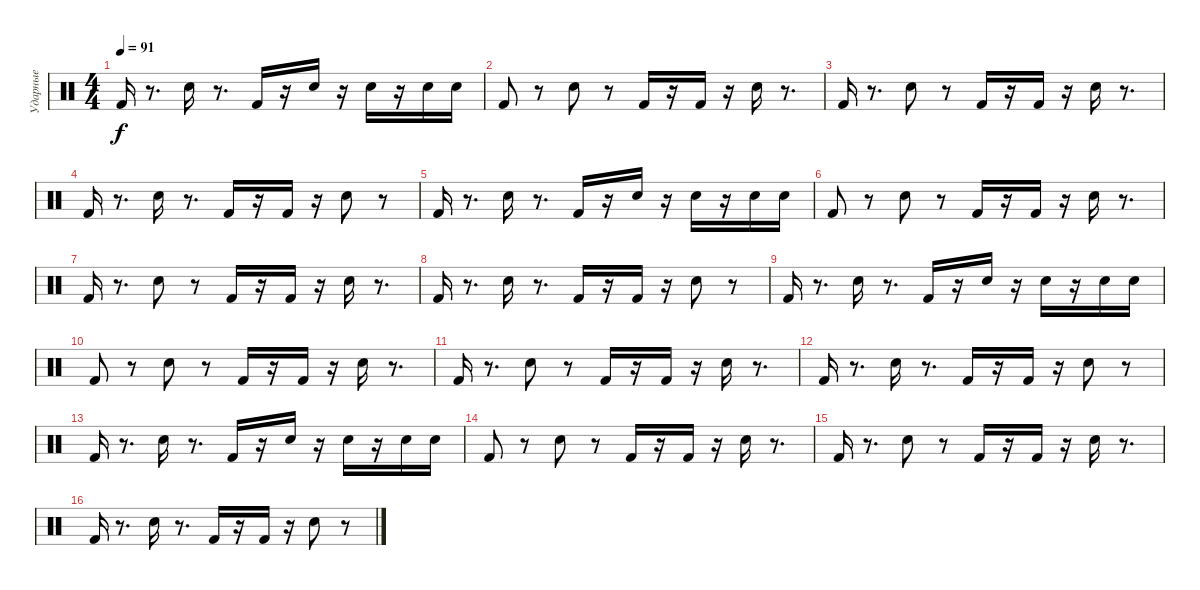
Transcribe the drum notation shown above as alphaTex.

\track ("Ударные" "Ударные") {instrument percussion}
\staff {score}
\articulation defaults
\ts (4 4)
\tempo 91
\clef neutral
\ks c "Kick (hit) 2".16{dy f}
r.8{d} "Electric Snare (hit)".16 r.8{d} "Kick (hit) 2".16 r.16 "Electric Snare (hit)".16 r.16 "Electric Snare (hit)".16 r.16 "Electric Snare (hit)".16 "Electric Snare (hit)".16 |
"Kick (hit) 2".8 r.8 "Electric Snare (hit)".8 r.8 "Kick (hit) 2".16 r.16 "Kick (hit) 2".16 r.16 "Electric Snare (hit)".16 r.8{d} |
"Kick (hit) 2".16 r.8{d} "Electric Snare (hit)".8 r.8 "Kick (hit) 2".16 r.16 "Kick (hit) 2".16 r.16 "Electric Snare (hit)".16 r.8{d} |
"Kick (hit) 2".16 r.8{d} "Electric Snare (hit)".16 r.8{d} "Kick (hit) 2".16 r.16 "Kick (hit) 2".16 r.16 "Electric Snare (hit)".8 r.8 |
"Kick (hit) 2".16 r.8{d} "Electric Snare (hit)".16 r.8{d} "Kick (hit) 2".16 r.16 "Electric Snare (hit)".16 r.16 "Electric Snare (hit)".16 r.16 "Electric Snare (hit)".16 "Electric Snare (hit)".16 |
"Kick (hit) 2".8 r.8 "Electric Snare (hit)".8 r.8 "Kick (hit) 2".16 r.16 "Kick (hit) 2".16 r.16 "Electric Snare (hit)".16 r.8{d} |
"Kick (hit) 2".16 r.8{d} "Electric Snare (hit)".8 r.8 "Kick (hit) 2".16 r.16 "Kick (hit) 2".16 r.16 "Electric Snare (hit)".16 r.8{d} |
"Kick (hit) 2".16 r.8{d} "Electric Snare (hit)".16 r.8{d} "Kick (hit) 2".16 r.16 "Kick (hit) 2".16 r.16 "Electric Snare (hit)".8 r.8 |
"Kick (hit) 2".16 r.8{d} "Electric Snare (hit)".16 r.8{d} "Kick (hit) 2".16 r.16 "Electric Snare (hit)".16 r.16 "Electric Snare (hit)".16 r.16 "Electric Snare (hit)".16 "Electric Snare (hit)".16 |
"Kick (hit) 2".8 r.8 "Electric Snare (hit)".8 r.8 "Kick (hit) 2".16 r.16 "Kick (hit) 2".16 r.16 "Electric Snare (hit)".16 r.8{d} |
"Kick (hit) 2".16 r.8{d} "Electric Snare (hit)".8 r.8 "Kick (hit) 2".16 r.16 "Kick (hit) 2".16 r.16 "Electric Snare (hit)".16 r.8{d} |
"Kick (hit) 2".16 r.8{d} "Electric Snare (hit)".16 r.8{d} "Kick (hit) 2".16 r.16 "Kick (hit) 2".16 r.16 "Electric Snare (hit)".8 r.8 |
"Kick (hit) 2".16 r.8{d} "Electric Snare (hit)".16 r.8{d} "Kick (hit) 2".16 r.16 "Electric Snare (hit)".16 r.16 "Electric Snare (hit)".16 r.16 "Electric Snare (hit)".16 "Electric Snare (hit)".16 |
"Kick (hit) 2".8 r.8 "Electric Snare (hit)".8 r.8 "Kick (hit) 2".16 r.16 "Kick (hit) 2".16 r.16 "Electric Snare (hit)".16 r.8{d} |
"Kick (hit) 2".16 r.8{d} "Electric Snare (hit)".8 r.8 "Kick (hit) 2".16 r.16 "Kick (hit) 2".16 r.16 "Electric Snare (hit)".16 r.8{d} |
"Kick (hit) 2".16 r.8{d} "Electric Snare (hit)".16 r.8{d} "Kick (hit) 2".16 r.16 "Kick (hit) 2".16 r.16 "Electric Snare (hit)".8 r.8
